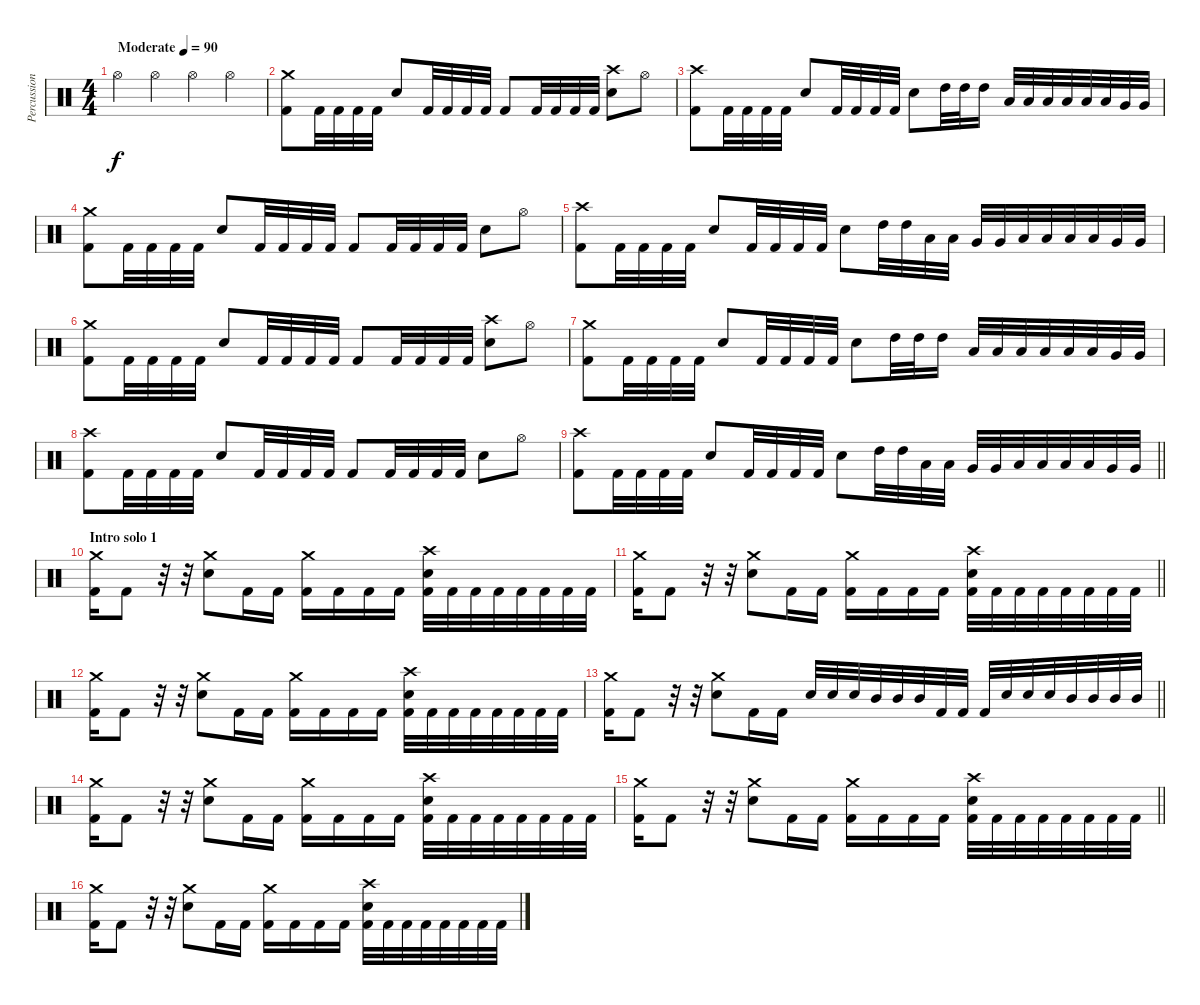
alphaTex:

\track ("Percussion" "Percussion") {instrument percussion}
\staff {score}
\articulation defaults
\ts (4 4)
\tempo (90 "Moderate")
\clef neutral
\ks c "Hi-Hat (open)".4{dy f} "Hi-Hat (open)".4 "Hi-Hat (open)".4 "Hi-Hat (open)".4
|
("Crash medium (hit)" "Kick (hit) 2").8 "Kick (hit) 2".32 "Kick (hit) 2".32 "Kick (hit) 2".32 "Kick (hit) 2".32 "Electric Snare (hit)".8 "Kick (hit) 2".32 "Kick (hit) 2".32 "Kick (hit) 2".32 "Kick (hit) 2".32 "Kick (hit) 2".8 "Kick (hit) 2".32 "Kick (hit) 2".32 "Kick (hit) 2".32 "Kick (hit) 2".32 ("Crash high (hit)" "Electric Snare (hit)").8 "Hi-Hat (open)".8 |
("Crash high (hit)" "Kick (hit) 2").8 "Kick (hit) 2".32 "Kick (hit) 2".32 "Kick (hit) 2".32 "Kick (hit) 2".32 "Electric Snare (hit)".8 "Kick (hit) 2".32 "Kick (hit) 2".32 "Kick (hit) 2".32 "Kick (hit) 2".32 "Electric Snare (hit)".8 "High Tom (hit)".32 "High Tom (hit)".32 "High Tom (hit)".16 "Low Tom (hit)".32 "Low Tom (hit)".32 "Low Tom (hit)".32 "Low Floor Tom (hit)".32 "Low Floor Tom (hit)".32 "Low Floor Tom (hit)".32 "Very Low Tom (hit)".32 "Very Low Tom (hit)".32 |
("Crash medium (hit)" "Kick (hit) 2").8 "Kick (hit) 2".32 "Kick (hit) 2".32 "Kick (hit) 2".32 "Kick (hit) 2".32 "Electric Snare (hit)".8 "Kick (hit) 2".32 "Kick (hit) 2".32 "Kick (hit) 2".32 "Kick (hit) 2".32 "Kick (hit) 2".8 "Kick (hit) 2".32 "Kick (hit) 2".32 "Kick (hit) 2".32 "Kick (hit) 2".32 "Electric Snare (hit)".8 "Hi-Hat (open)".8 |
("Crash high (hit)" "Kick (hit) 2").8 "Kick (hit) 2".32 "Kick (hit) 2".32 "Kick (hit) 2".32 "Kick (hit) 2".32 "Electric Snare (hit)".8 "Kick (hit) 2".32 "Kick (hit) 2".32 "Kick (hit) 2".32 "Kick (hit) 2".32 "Electric Snare (hit)".8 "High Tom (hit)".32 "High Tom (hit)".32 "Low Tom (hit)".32 "Low Tom (hit)".32 "Very Low Tom (hit)".32 "Very Low Tom (hit)".32 "Low Floor Tom (hit)".32 "Low Floor Tom (hit)".32 "Low Floor Tom (hit)".32 "Low Floor Tom (hit)".32 "Very Low Tom (hit)".32 "Very Low Tom (hit)".32 |
("Crash medium (hit)" "Kick (hit) 2").8 "Kick (hit) 2".32 "Kick (hit) 2".32 "Kick (hit) 2".32 "Kick (hit) 2".32 "Electric Snare (hit)".8 "Kick (hit) 2".32 "Kick (hit) 2".32 "Kick (hit) 2".32 "Kick (hit) 2".32 "Kick (hit) 2".8 "Kick (hit) 2".32 "Kick (hit) 2".32 "Kick (hit) 2".32 "Kick (hit) 2".32 ("Crash high (hit)" "Electric Snare (hit)").8 "Hi-Hat (open)".8 |
("Crash medium (hit)" "Kick (hit) 2").8 "Kick (hit) 2".32 "Kick (hit) 2".32 "Kick (hit) 2".32 "Kick (hit) 2".32 "Electric Snare (hit)".8 "Kick (hit) 2".32 "Kick (hit) 2".32 "Kick (hit) 2".32 "Kick (hit) 2".32 "Electric Snare (hit)".8 "High Tom (hit)".32 "High Tom (hit)".32 "High Tom (hit)".16 "Low Tom (hit)".32 "Low Tom (hit)".32 "Low Tom (hit)".32 "Low Floor Tom (hit)".32 "Low Floor Tom (hit)".32 "Low Floor Tom (hit)".32 "Very Low Tom (hit)".32 "Very Low Tom (hit)".32 |
("Crash high (hit)" "Kick (hit) 2").8 "Kick (hit) 2".32 "Kick (hit) 2".32 "Kick (hit) 2".32 "Kick (hit) 2".32 "Electric Snare (hit)".8 "Kick (hit) 2".32 "Kick (hit) 2".32 "Kick (hit) 2".32 "Kick (hit) 2".32 "Kick (hit) 2".8 "Kick (hit) 2".32 "Kick (hit) 2".32 "Kick (hit) 2".32 "Kick (hit) 2".32 "Electric Snare (hit)".8 "Hi-Hat (open)".8 |
\barLineRight lightlight
("Crash high (hit)" "Kick (hit) 2").8 "Kick (hit) 2".32 "Kick (hit) 2".32 "Kick (hit) 2".32 "Kick (hit) 2".32 "Electric Snare (hit)".8 "Kick (hit) 2".32 "Kick (hit) 2".32 "Kick (hit) 2".32 "Kick (hit) 2".32 "Electric Snare (hit)".8 "High Tom (hit)".32 "High Tom (hit)".32 "Low Tom (hit)".32 "Low Tom (hit)".32 "Very Low Tom (hit)".32 "Very Low Tom (hit)".32 "Low Floor Tom (hit)".32 "Low Floor Tom (hit)".32 "Low Floor Tom (hit)".32 "Low Floor Tom (hit)".32 "Very Low Tom (hit)".32 "Very Low Tom (hit)".32 |
\section ("" "Intro solo 1")
("Crash medium (hit)" "Kick (hit) 2").16 "Kick (hit) 2".8 r.32 r.32 ("Crash medium (hit)" "Electric Snare (hit)").8 "Kick (hit) 2".16 "Kick (hit) 2".16 ("Crash medium (hit)" "Kick (hit) 2").16 "Kick (hit) 2".16 "Kick (hit) 2".16 "Kick (hit) 2".16 ("Crash high (hit)" "Electric Snare (hit)" "Kick (hit) 2").32 "Kick (hit) 2".32 "Kick (hit) 2".32 "Kick (hit) 2".32 "Kick (hit) 2".32 "Kick (hit) 2".32 "Kick (hit) 2".32 "Kick (hit) 2".32 |
\barLineRight lightlight
("Crash medium (hit)" "Kick (hit) 2").16 "Kick (hit) 2".8 r.32 r.32 ("Crash medium (hit)" "Electric Snare (hit)").8 "Kick (hit) 2".16 "Kick (hit) 2".16 ("Crash medium (hit)" "Kick (hit) 2").16 "Kick (hit) 2".16 "Kick (hit) 2".16 "Kick (hit) 2".16 ("Crash high (hit)" "Electric Snare (hit)" "Kick (hit) 2").32 "Kick (hit) 2".32 "Kick (hit) 2".32 "Kick (hit) 2".32 "Kick (hit) 2".32 "Kick (hit) 2".32 "Kick (hit) 2".32 "Kick (hit) 2".32 |
("Crash medium (hit)" "Kick (hit) 2").16 "Kick (hit) 2".8 r.32 r.32 ("Crash medium (hit)" "Electric Snare (hit)").8 "Kick (hit) 2".16 "Kick (hit) 2".16 ("Crash medium (hit)" "Kick (hit) 2").16 "Kick (hit) 2".16 "Kick (hit) 2".16 "Kick (hit) 2".16 ("Crash high (hit)" "Electric Snare (hit)" "Kick (hit) 2").32 "Kick (hit) 2".32 "Kick (hit) 2".32 "Kick (hit) 2".32 "Kick (hit) 2".32 "Kick (hit) 2".32 "Kick (hit) 2".32 "Kick (hit) 2".32 |
\barLineRight lightlight
("Crash medium (hit)" "Kick (hit) 2").16 "Kick (hit) 2".8 r.32 r.32 ("Crash medium (hit)" "Electric Snare (hit)").8 "Kick (hit) 2".16 "Kick (hit) 2".16 "Snare (hit) 2".32 "Snare (hit) 2".32 "Snare (hit) 2".32 "Mid Tom (hit)".32 "Mid Tom (hit)".32 "Mid Tom (hit)".32 "Kick (hit) 2".32 "Kick (hit) 2".32 "Kick (hit) 2".32 "Snare (hit) 2".32 "Snare (hit) 2".32 "Snare (hit) 2".32 "Mid Tom (hit)".32 "Mid Tom (hit)".32 "Mid Tom (hit)".32 "Mid Tom (hit)".32 |
("Crash medium (hit)" "Kick (hit) 2").16 "Kick (hit) 2".8 r.32 r.32 ("Crash medium (hit)" "Electric Snare (hit)").8 "Kick (hit) 2".16 "Kick (hit) 2".16 ("Crash medium (hit)" "Kick (hit) 2").16 "Kick (hit) 2".16 "Kick (hit) 2".16 "Kick (hit) 2".16 ("Crash high (hit)" "Electric Snare (hit)" "Kick (hit) 2").32 "Kick (hit) 2".32 "Kick (hit) 2".32 "Kick (hit) 2".32 "Kick (hit) 2".32 "Kick (hit) 2".32 "Kick (hit) 2".32 "Kick (hit) 2".32 |
\barLineRight lightlight
("Crash medium (hit)" "Kick (hit) 2").16 "Kick (hit) 2".8 r.32 r.32 ("Crash medium (hit)" "Electric Snare (hit)").8 "Kick (hit) 2".16 "Kick (hit) 2".16 ("Crash medium (hit)" "Kick (hit) 2").16 "Kick (hit) 2".16 "Kick (hit) 2".16 "Kick (hit) 2".16 ("Crash high (hit)" "Electric Snare (hit)" "Kick (hit) 2").32 "Kick (hit) 2".32 "Kick (hit) 2".32 "Kick (hit) 2".32 "Kick (hit) 2".32 "Kick (hit) 2".32 "Kick (hit) 2".32 "Kick (hit) 2".32 |
("Crash medium (hit)" "Kick (hit) 2").16 "Kick (hit) 2".8 r.32 r.32 ("Crash medium (hit)" "Electric Snare (hit)").8 "Kick (hit) 2".16 "Kick (hit) 2".16 ("Crash medium (hit)" "Kick (hit) 2").16 "Kick (hit) 2".16 "Kick (hit) 2".16 "Kick (hit) 2".16 ("Crash high (hit)" "Electric Snare (hit)" "Kick (hit) 2").32 "Kick (hit) 2".32 "Kick (hit) 2".32 "Kick (hit) 2".32 "Kick (hit) 2".32 "Kick (hit) 2".32 "Kick (hit) 2".32 "Kick (hit) 2".32
